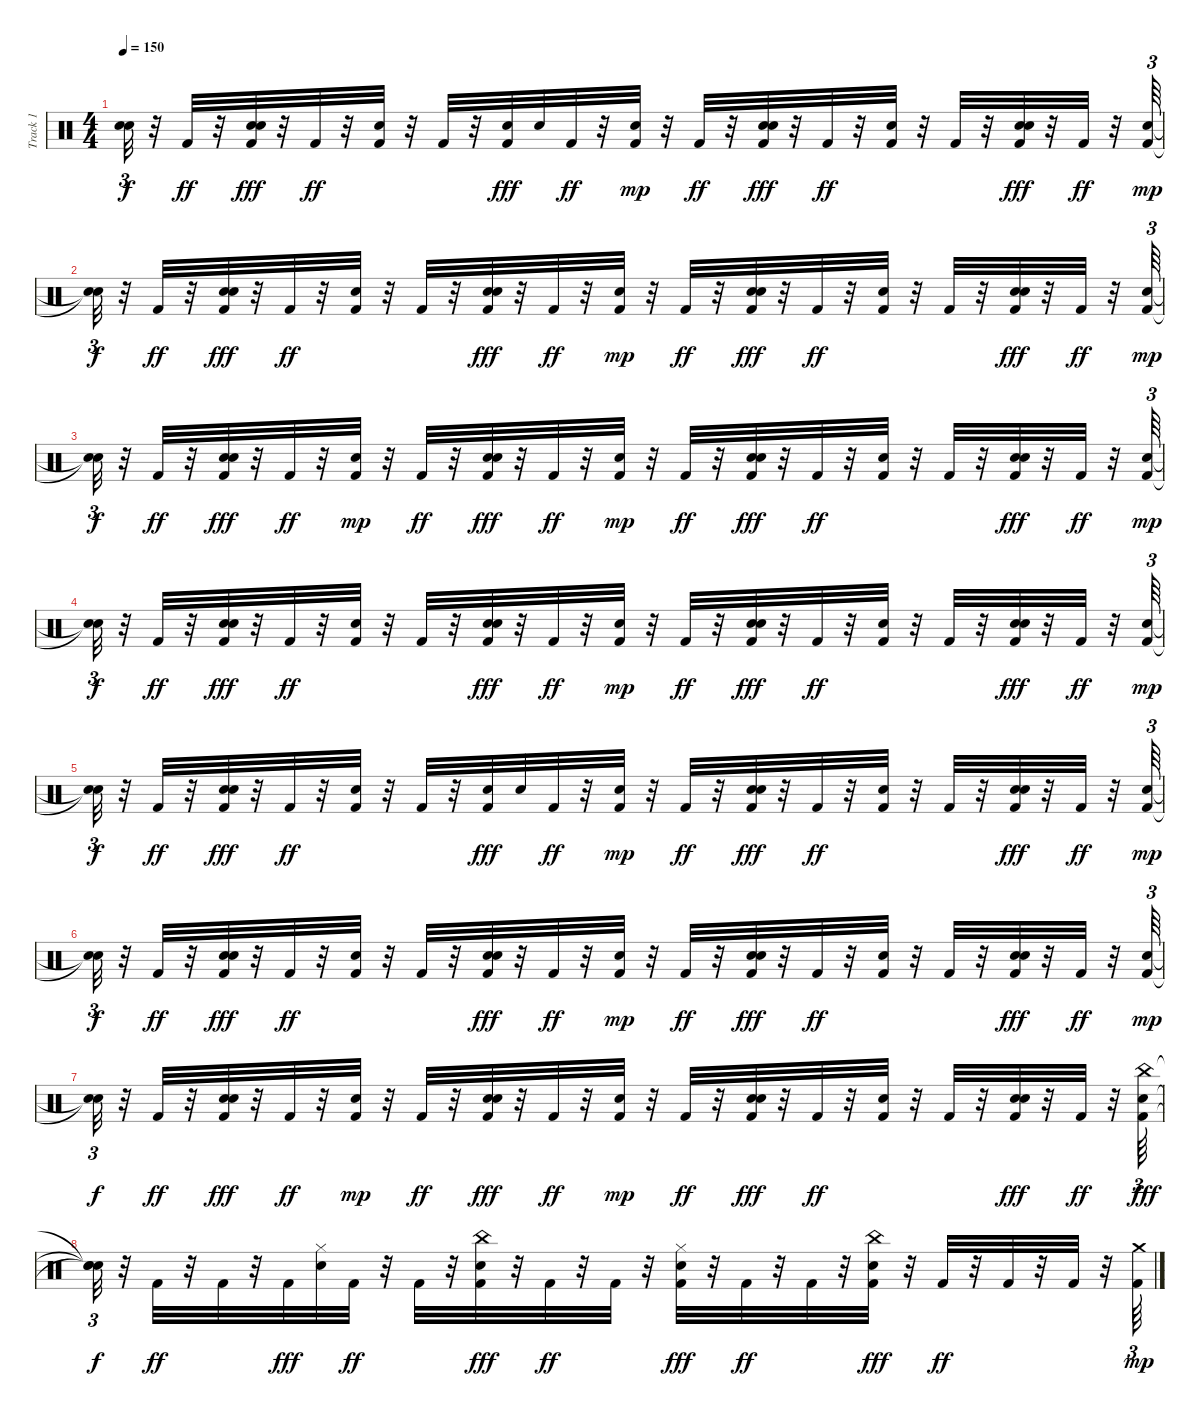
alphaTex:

\track ("Track 1" "Track 1") {instrument percussion}
\staff {score}
\articulation defaults
\ts (4 4)
\tempo 150
\clef neutral
\ks c
("Snare (hit)"{t} "Snare (hit)"{t}).32{tu (3 2) dy f} r.32 "Kick (hit) 2".32{dy ff} r.32 ("Kick (hit) 2" "Snare (hit)" "Snare (hit) 2").32{dy fff} r.32 "Kick (hit) 2".32{dy ff} r.32 ("Snare (hit)" "Kick (hit) 2").32 r.32 "Kick (hit) 2".32 r.32 ("Kick (hit) 2" "Snare (hit)").32{dy fff} "Snare (hit) 2".32 "Kick (hit) 2".32{dy ff} r.32 ("Kick (hit) 2" "Snare (hit)").32{dy mp} r.32 "Kick (hit) 2".32{dy ff} r.32 ("Kick (hit) 2" "Snare (hit) 2" "Snare (hit)").32{dy fff} r.32 "Kick (hit) 2".32{dy ff} r.32 ("Snare (hit)" "Kick (hit) 2").32 r.32 "Kick (hit) 2".32 r.32 ("Kick (hit) 2" "Snare (hit)" "Snare (hit) 2").32{dy fff} r.32 "Kick (hit) 2".32{dy ff} r.32 ("Kick (hit) 2" "Snare (hit)").64{tu (3 2) dy mp} |
("Snare (hit)"{t} "Snare (hit)"{t}).32{tu (3 2) dy f} r.32 "Kick (hit) 2".32{dy ff} r.32 ("Kick (hit) 2" "Snare (hit) 2" "Snare (hit)").32{dy fff} r.32 "Kick (hit) 2".32{dy ff} r.32 ("Snare (hit)" "Kick (hit) 2").32 r.32 "Kick (hit) 2".32 r.32 ("Kick (hit) 2" "Snare (hit)" "Snare (hit) 2").32{dy fff} r.32 "Kick (hit) 2".32{dy ff} r.32 ("Kick (hit) 2" "Snare (hit)").32{dy mp} r.32 "Kick (hit) 2".32{dy ff} r.32 ("Kick (hit) 2" "Snare (hit) 2" "Snare (hit)").32{dy fff} r.32 "Kick (hit) 2".32{dy ff} r.32 ("Snare (hit)" "Kick (hit) 2").32 r.32 "Kick (hit) 2".32 r.32 ("Kick (hit) 2" "Snare (hit) 2" "Snare (hit)").32{dy fff} r.32 "Kick (hit) 2".32{dy ff} r.32 ("Kick (hit) 2" "Snare (hit)").64{tu (3 2) dy mp} |
("Snare (hit)"{t} "Snare (hit)"{t}).32{tu (3 2) dy f} r.32 "Kick (hit) 2".32{dy ff} r.32 ("Kick (hit) 2" "Snare (hit) 2" "Snare (hit)").32{dy fff} r.32 "Kick (hit) 2".32{dy ff} r.32 ("Kick (hit) 2" "Snare (hit)").32{dy mp} r.32 "Kick (hit) 2".32{dy ff} r.32 ("Kick (hit) 2" "Snare (hit) 2" "Snare (hit)").32{dy fff} r.32 "Kick (hit) 2".32{dy ff} r.32 ("Kick (hit) 2" "Snare (hit)").32{dy mp} r.32 "Kick (hit) 2".32{dy ff} r.32 ("Snare (hit) 2" "Kick (hit) 2" "Snare (hit)").32{dy fff} r.32 "Kick (hit) 2".32{dy ff} r.32 ("Snare (hit)" "Kick (hit) 2").32 r.32 "Kick (hit) 2".32 r.32 ("Kick (hit) 2" "Snare (hit) 2" "Snare (hit)").32{dy fff} r.32 "Kick (hit) 2".32{dy ff} r.32 ("Kick (hit) 2" "Snare (hit)").64{tu (3 2) dy mp} |
("Snare (hit)"{t} "Snare (hit)"{t}).32{tu (3 2) dy f} r.32 "Kick (hit) 2".32{dy ff} r.32 ("Kick (hit) 2" "Snare (hit)" "Snare (hit) 2").32{dy fff} r.32 "Kick (hit) 2".32{dy ff} r.32 ("Snare (hit)" "Kick (hit) 2").32 r.32 "Kick (hit) 2".32 r.32 ("Kick (hit) 2" "Snare (hit)" "Snare (hit) 2").32{dy fff} r.32 "Kick (hit) 2".32{dy ff} r.32 ("Kick (hit) 2" "Snare (hit)").32{dy mp} r.32 "Kick (hit) 2".32{dy ff} r.32 ("Kick (hit) 2" "Snare (hit) 2" "Snare (hit)").32{dy fff} r.32 "Kick (hit) 2".32{dy ff} r.32 ("Snare (hit)" "Kick (hit) 2").32 r.32 "Kick (hit) 2".32 r.32 ("Kick (hit) 2" "Snare (hit)" "Snare (hit) 2").32{dy fff} r.32 "Kick (hit) 2".32{dy ff} r.32 ("Kick (hit) 2" "Snare (hit)").64{tu (3 2) dy mp} |
("Snare (hit)"{t} "Snare (hit)"{t}).32{tu (3 2) dy f} r.32 "Kick (hit) 2".32{dy ff} r.32 ("Kick (hit) 2" "Snare (hit)" "Snare (hit) 2").32{dy fff} r.32 "Kick (hit) 2".32{dy ff} r.32 ("Snare (hit)" "Kick (hit) 2").32 r.32 "Kick (hit) 2".32 r.32 ("Kick (hit) 2" "Snare (hit)").32{dy fff} "Snare (hit) 2".32 "Kick (hit) 2".32{dy ff} r.32 ("Kick (hit) 2" "Snare (hit)").32{dy mp} r.32 "Kick (hit) 2".32{dy ff} r.32 ("Kick (hit) 2" "Snare (hit) 2" "Snare (hit)").32{dy fff} r.32 "Kick (hit) 2".32{dy ff} r.32 ("Snare (hit)" "Kick (hit) 2").32 r.32 "Kick (hit) 2".32 r.32 ("Kick (hit) 2" "Snare (hit)" "Snare (hit) 2").32{dy fff} r.32 "Kick (hit) 2".32{dy ff} r.32 ("Kick (hit) 2" "Snare (hit)").64{tu (3 2) dy mp} |
("Snare (hit)"{t} "Snare (hit)"{t}).32{tu (3 2) dy f} r.32 "Kick (hit) 2".32{dy ff} r.32 ("Kick (hit) 2" "Snare (hit) 2" "Snare (hit)").32{dy fff} r.32 "Kick (hit) 2".32{dy ff} r.32 ("Snare (hit)" "Kick (hit) 2").32 r.32 "Kick (hit) 2".32 r.32 ("Kick (hit) 2" "Snare (hit)" "Snare (hit) 2").32{dy fff} r.32 "Kick (hit) 2".32{dy ff} r.32 ("Kick (hit) 2" "Snare (hit)").32{dy mp} r.32 "Kick (hit) 2".32{dy ff} r.32 ("Kick (hit) 2" "Snare (hit) 2" "Snare (hit)").32{dy fff} r.32 "Kick (hit) 2".32{dy ff} r.32 ("Snare (hit)" "Kick (hit) 2").32 r.32 "Kick (hit) 2".32 r.32 ("Kick (hit) 2" "Snare (hit) 2" "Snare (hit)").32{dy fff} r.32 "Kick (hit) 2".32{dy ff} r.32 ("Kick (hit) 2" "Snare (hit)").64{tu (3 2) dy mp} |
("Snare (hit)"{t} "Snare (hit)"{t}).32{tu (3 2) dy f} r.32 "Kick (hit) 2".32{dy ff} r.32 ("Kick (hit) 2" "Snare (hit) 2" "Snare (hit)").32{dy fff} r.32 "Kick (hit) 2".32{dy ff} r.32 ("Kick (hit) 2" "Snare (hit)").32{dy mp} r.32 "Kick (hit) 2".32{dy ff} r.32 ("Kick (hit) 2" "Snare (hit) 2" "Snare (hit)").32{dy fff} r.32 "Kick (hit) 2".32{dy ff} r.32 ("Kick (hit) 2" "Snare (hit)").32{dy mp} r.32 "Kick (hit) 2".32{dy ff} r.32 ("Snare (hit) 2" "Kick (hit) 2" "Snare (hit)").32{dy fff} r.32 "Kick (hit) 2".32{dy ff} r.32 ("Snare (hit)" "Kick (hit) 2").32 r.32 "Kick (hit) 2".32 r.32 ("Kick (hit) 2" "Snare (hit) 2" "Snare (hit)").32{dy fff} r.32 "Kick (hit) 2".32{dy ff} r.32 ("Kick (hit) 2" "Snare (hit) 2" "China (hit)").64{tu (3 2) dy fff} |
("Snare (hit)"{t} "Snare (hit)"{t} "Snare (hit)"{t}).32{tu (3 2) dy f} r.32 "Kick (hit) 2".32{dy ff} r.32 "Kick (hit) 2".32 r.32 "Kick (hit) 2".32{dy fff} ("Snare (hit) 2" "Hi-Hat (closed)").32 "Kick (hit) 2".32{dy ff} r.32 "Kick (hit) 2".32 r.32 ("Kick (hit) 2" "Snare (hit) 2" "China (hit)").32{dy fff} r.32 "Kick (hit) 2".32{dy ff} r.32 "Kick (hit) 2".32 r.32 ("Kick (hit) 2" "Snare (hit) 2" "Hi-Hat (closed)").32{dy fff} r.32 "Kick (hit) 2".32{dy ff} r.32 "Kick (hit) 2".32 r.32 ("Kick (hit) 2" "Snare (hit) 2" "China (hit)").32{dy fff} r.32 "Kick (hit) 2".32{dy ff} r.32 "Kick (hit) 2".32 r.32 "Kick (hit) 2".32 r.32 ("Kick (hit) 2" "Crash medium (hit)").64{tu (3 2) dy mp}
